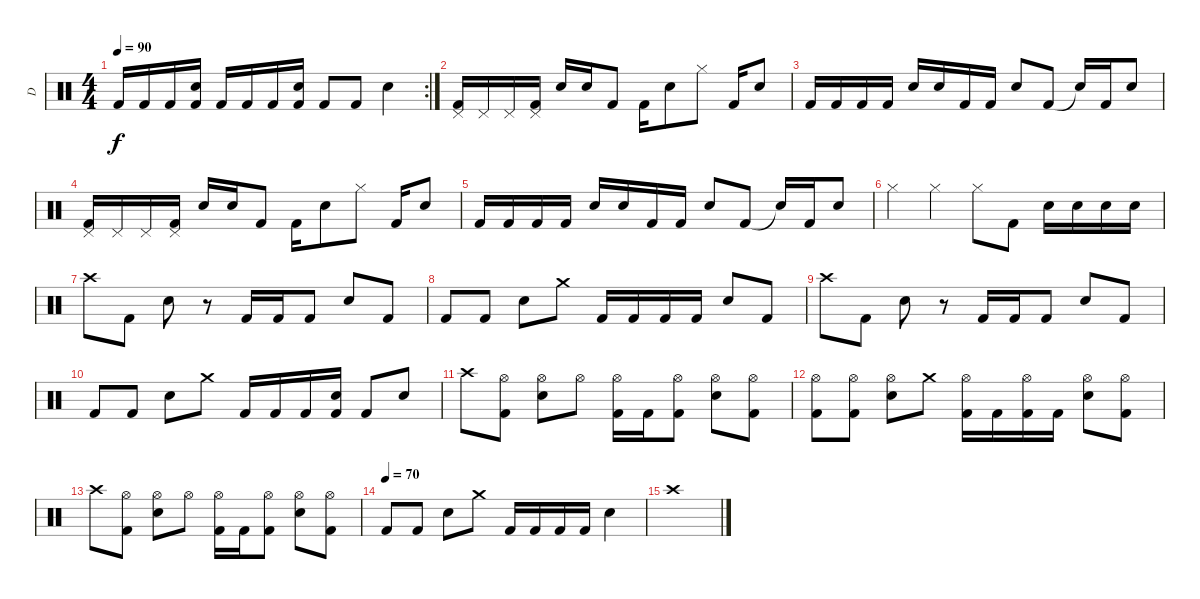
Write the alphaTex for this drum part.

\track ("D" "D") {instrument percussion}
\staff {score}
\articulation defaults
\rc 2
\ts (4 4)
\tempo 90
\clef neutral
\ks c "Kick (hit) 2".16{dy f} "Kick (hit) 2".16 "Kick (hit) 2".16
("Electric Snare (hit)" "Kick (hit) 2").16 "Kick (hit) 2".16 "Kick (hit) 2".16 "Kick (hit) 2".16 ("Electric Snare (hit)" "Kick (hit) 2").16 "Kick (hit) 2".8 "Kick (hit) 2".8 "Electric Snare (hit)".4 |
("Pedal Hi-Hat (hit)" "Kick (hit) 2").16 "Pedal Hi-Hat (hit)".16 "Pedal Hi-Hat (hit)".16 ("Pedal Hi-Hat (hit)" "Kick (hit) 2").16 "Electric Snare (hit)".16 "Electric Snare (hit)".16 "Kick (hit) 2".8 "Kick (hit) 2".16 "Electric Snare (hit)".8 "Hi-Hat (closed)".8 "Kick (hit) 2".16 "Electric Snare (hit)".8 |
"Kick (hit) 2".16 "Kick (hit) 2".16 "Kick (hit) 2".16 "Kick (hit) 2".16 "Electric Snare (hit)".16 "Electric Snare (hit)".16 "Kick (hit) 2".16 "Kick (hit) 2".16 "Electric Snare (hit)".8 "Kick (hit) 2".8 "Snare (hit)"{t}.16 "Kick (hit) 2".16 "Electric Snare (hit)".8 |
("Pedal Hi-Hat (hit)" "Kick (hit) 2").16 "Pedal Hi-Hat (hit)".16 "Pedal Hi-Hat (hit)".16 ("Pedal Hi-Hat (hit)" "Kick (hit) 2").16 "Electric Snare (hit)".16 "Electric Snare (hit)".16 "Kick (hit) 2".8 "Kick (hit) 2".16 "Electric Snare (hit)".8 "Hi-Hat (closed)".8 "Kick (hit) 2".16 "Electric Snare (hit)".8 |
"Kick (hit) 2".16 "Kick (hit) 2".16 "Kick (hit) 2".16 "Kick (hit) 2".16 "Electric Snare (hit)".16 "Electric Snare (hit)".16 "Kick (hit) 2".16 "Kick (hit) 2".16 "Electric Snare (hit)".8 "Kick (hit) 2".8 "Snare (hit)"{t}.16 "Kick (hit) 2".16 "Electric Snare (hit)".8 |
"Hi-Hat (closed)".4 "Hi-Hat (closed)".4 "Hi-Hat (closed)".8 "Kick (hit) 2".8 "Electric Snare (hit)".16 "Electric Snare (hit)".16 "Electric Snare (hit)".16 "Electric Snare (hit)".16 |
"Crash high (hit)".8 "Kick (hit) 2".8 "Electric Snare (hit)".8 r.8 "Kick (hit) 2".16 "Kick (hit) 2".16 "Kick (hit) 2".8 "Electric Snare (hit)".8 "Kick (hit) 2".8 |
"Kick (hit) 2".8 "Kick (hit) 2".8 "Electric Snare (hit)".8 "Crash medium (hit)".8 "Kick (hit) 2".16 "Kick (hit) 2".16 "Kick (hit) 2".16 "Kick (hit) 2".16 "Electric Snare (hit)".8 "Kick (hit) 2".8 |
"Crash high (hit)".8 "Kick (hit) 2".8 "Electric Snare (hit)".8 r.8 "Kick (hit) 2".16 "Kick (hit) 2".16 "Kick (hit) 2".8 "Electric Snare (hit)".8 "Kick (hit) 2".8 |
"Kick (hit) 2".8 "Kick (hit) 2".8 "Electric Snare (hit)".8 "Crash medium (hit)".8 "Kick (hit) 2".16 "Kick (hit) 2".16 "Kick (hit) 2".16 ("Electric Snare (hit)" "Kick (hit) 2").16 "Kick (hit) 2".8 "Electric Snare (hit)".8 |
"Crash high (hit)".8 ("Hi-Hat (open)" "Kick (hit) 2").8 ("Hi-Hat (open)" "Electric Snare (hit)").8 "Hi-Hat (open)".8 ("Hi-Hat (open)" "Kick (hit) 2").16 "Kick (hit) 2".16 ("Hi-Hat (open)" "Kick (hit) 2").8 ("Hi-Hat (open)" "Electric Snare (hit)").8 ("Hi-Hat (open)" "Kick (hit) 2").8 |
("Hi-Hat (open)" "Kick (hit) 2").8 ("Hi-Hat (open)" "Kick (hit) 2").8 ("Hi-Hat (open)" "Electric Snare (hit)").8 "Crash medium (hit)".8 ("Hi-Hat (open)" "Kick (hit) 2").16 "Kick (hit) 2".16 ("Hi-Hat (open)" "Kick (hit) 2").16 "Kick (hit) 2".16 ("Hi-Hat (open)" "Electric Snare (hit)").8 ("Hi-Hat (open)" "Kick (hit) 2").8 |
"Crash high (hit)".8 ("Hi-Hat (open)" "Kick (hit) 2").8 ("Hi-Hat (open)" "Electric Snare (hit)").8 "Hi-Hat (open)".8 ("Hi-Hat (open)" "Kick (hit) 2").16 "Kick (hit) 2".16 ("Hi-Hat (open)" "Kick (hit) 2").8 ("Hi-Hat (open)" "Electric Snare (hit)").8 ("Hi-Hat (open)" "Kick (hit) 2").8 |
\tempo (70)
"Kick (hit) 2".8 "Kick (hit) 2".8 "Electric Snare (hit)".8 "Crash medium (hit)".8 "Kick (hit) 2".16 "Kick (hit) 2".16 "Kick (hit) 2".16 "Kick (hit) 2".16 "Electric Snare (hit)".4 |
"Crash high (hit)".1
